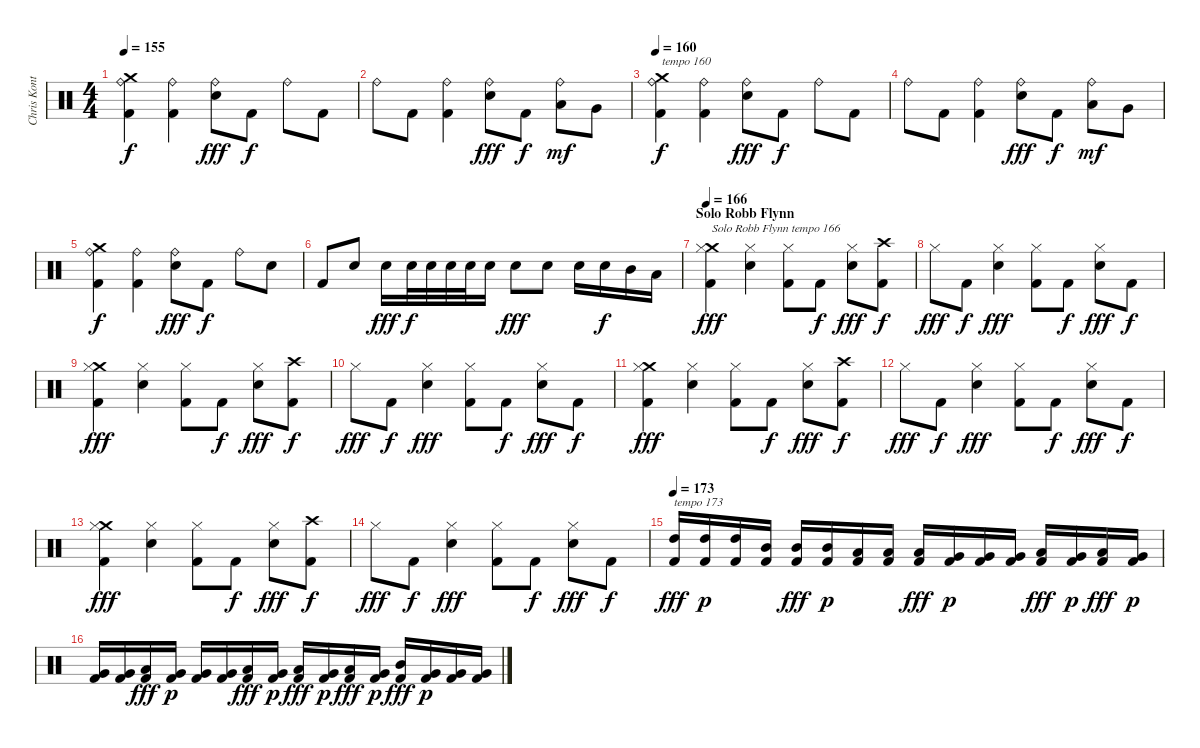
\track ("Chris Kontos" "Chris Kont") {instrument percussion}
\staff {score}
\articulation defaults
\ts (4 4)
\tempo 155
\clef neutral
\ks c
("Crash medium (hit)" "Ride (bell)" "Kick (hit) 2").4{dy f} ("Ride (bell)" "Kick (hit) 2").4 ("Electric Snare (hit)" "Ride (bell)").8{dy fff} "Kick (hit) 2".8{dy f} "Ride (bell)".8 "Kick (hit) 2".8 |
"Ride (bell)".8 "Kick (hit) 2".8 ("Ride (bell)" "Kick (hit) 2").4 ("Electric Snare (hit)" "Ride (bell)").8{dy fff} "Kick (hit) 2".8{dy f} ("Low Tom (hit)" "Ride (bell)").8{dy mf} "Very Low Tom (hit)".8 |
\tempo 160
("Crash medium (hit)" "Ride (bell)" "Kick (hit) 2").4{txt "tempo 160" dy f} ("Ride (bell)" "Kick (hit) 2").4 ("Electric Snare (hit)" "Ride (bell)").8{dy fff} "Kick (hit) 2".8{dy f} "Ride (bell)".8 "Kick (hit) 2".8 |
"Ride (bell)".8 "Kick (hit) 2".8 ("Ride (bell)" "Kick (hit) 2").4 ("Electric Snare (hit)" "Ride (bell)").8{dy fff} "Kick (hit) 2".8{dy f} ("Low Tom (hit)" "Ride (bell)").8{dy mf} "Very Low Tom (hit)".8 |
("Crash medium (hit)" "Ride (bell)" "Kick (hit) 2").4{dy f} ("Ride (bell)" "Kick (hit) 2").4 ("Electric Snare (hit)" "Ride (bell)").8{dy fff} "Kick (hit) 2".8{dy f} "Ride (bell)".8 "Electric Snare (hit)".8 |
"Kick (hit) 2".8 "Electric Snare (hit)".8 "Electric Snare (hit)".16{dy fff} "Electric Snare (hit)".32{dy f} "Electric Snare (hit)".32 "Electric Snare (hit)".32 "Electric Snare (hit)".32 "Electric Snare (hit)".16 "Electric Snare (hit)".8{dy fff} "Electric Snare (hit)".8 "Electric Snare (hit)".16 "Electric Snare (hit)".16{dy f} "Mid Tom (hit)".16 "Low Tom (hit)".16 |
\section ("" "Solo Robb Flynn")
\tempo 166
("Crash medium (hit)" "Hi-Hat (closed)" "Kick (hit) 2").4{txt "Solo Robb Flynn tempo 166" dy fff} ("Electric Snare (hit)" "Hi-Hat (closed)").4 ("Hi-Hat (closed)" "Kick (hit) 2").8 "Kick (hit) 2".8{dy f} ("Electric Snare (hit)" "Hi-Hat (closed)").8{dy fff} ("Crash high (hit)" "Kick (hit) 2").8{dy f} |
"Hi-Hat (closed)".8{dy fff} "Kick (hit) 2".8{dy f} ("Electric Snare (hit)" "Hi-Hat (closed)").4{dy fff} ("Hi-Hat (closed)" "Kick (hit) 2").8 "Kick (hit) 2".8{dy f} ("Electric Snare (hit)" "Hi-Hat (closed)").8{dy fff} "Kick (hit) 2".8{dy f} |
("Crash medium (hit)" "Hi-Hat (closed)" "Kick (hit) 2").4{dy fff} ("Electric Snare (hit)" "Hi-Hat (closed)").4 ("Hi-Hat (closed)" "Kick (hit) 2").8 "Kick (hit) 2".8{dy f} ("Electric Snare (hit)" "Hi-Hat (closed)").8{dy fff} ("Crash high (hit)" "Kick (hit) 2").8{dy f} |
"Hi-Hat (closed)".8{dy fff} "Kick (hit) 2".8{dy f} ("Electric Snare (hit)" "Hi-Hat (closed)").4{dy fff} ("Hi-Hat (closed)" "Kick (hit) 2").8 "Kick (hit) 2".8{dy f} ("Electric Snare (hit)" "Hi-Hat (closed)").8{dy fff} "Kick (hit) 2".8{dy f} |
("Crash medium (hit)" "Hi-Hat (closed)" "Kick (hit) 2").4{dy fff} ("Electric Snare (hit)" "Hi-Hat (closed)").4 ("Hi-Hat (closed)" "Kick (hit) 2").8 "Kick (hit) 2".8{dy f} ("Electric Snare (hit)" "Hi-Hat (closed)").8{dy fff} ("Crash high (hit)" "Kick (hit) 2").8{dy f} |
"Hi-Hat (closed)".8{dy fff} "Kick (hit) 2".8{dy f} ("Electric Snare (hit)" "Hi-Hat (closed)").4{dy fff} ("Hi-Hat (closed)" "Kick (hit) 2").8 "Kick (hit) 2".8{dy f} ("Electric Snare (hit)" "Hi-Hat (closed)").8{dy fff} "Kick (hit) 2".8{dy f} |
("Crash medium (hit)" "Hi-Hat (closed)" "Kick (hit) 2").4{dy fff} ("Electric Snare (hit)" "Hi-Hat (closed)").4 ("Hi-Hat (closed)" "Kick (hit) 2").8 "Kick (hit) 2".8{dy f} ("Electric Snare (hit)" "Hi-Hat (closed)").8{dy fff} ("Crash high (hit)" "Kick (hit) 2").8{dy f} |
"Hi-Hat (closed)".8{dy fff} "Kick (hit) 2".8{dy f} ("Electric Snare (hit)" "Hi-Hat (closed)").4{dy fff} ("Hi-Hat (closed)" "Kick (hit) 2").8 "Kick (hit) 2".8{dy f} ("Electric Snare (hit)" "Hi-Hat (closed)").8{dy fff} "Kick (hit) 2".8{dy f} |
\tempo 173
("High Tom (hit)" "Kick (hit) 2").16{txt "tempo 173" dy fff} ("High Tom (hit)" "Kick (hit) 2").16{dy p} ("High Tom (hit)" "Kick (hit) 2").16 ("Mid Tom (hit)" "Kick (hit) 2").16 ("Mid Tom (hit)" "Kick (hit) 2").16{dy fff} ("Mid Tom (hit)" "Kick (hit) 2").16{dy p} ("Low Tom (hit)" "Kick (hit) 2").16 ("Low Tom (hit)" "Kick (hit) 2").16 ("Low Tom (hit)" "Kick (hit) 2").16{dy fff} ("Very Low Tom (hit)" "Kick (hit) 2").16{dy p} ("Very Low Tom (hit)" "Kick (hit) 2").16 ("Very Low Tom (hit)" "Kick (hit) 2").16 ("Low Tom (hit)" "Kick (hit) 2").16{dy fff} ("Very Low Tom (hit)" "Kick (hit) 2").16{dy p} ("Low Tom (hit)" "Kick (hit) 2").16{dy fff} ("Very Low Tom (hit)" "Kick (hit) 2").16{dy p} |
("Very Low Tom (hit)" "Kick (hit) 2").16 ("Very Low Tom (hit)" "Kick (hit) 2").16 ("Low Tom (hit)" "Kick (hit) 2").16{dy fff} ("Very Low Tom (hit)" "Kick (hit) 2").16{dy p} ("Very Low Tom (hit)" "Kick (hit) 2").16 ("Very Low Tom (hit)" "Kick (hit) 2").16 ("Low Tom (hit)" "Kick (hit) 2").16{dy fff} ("Very Low Tom (hit)" "Kick (hit) 2").16{dy p} ("Low Tom (hit)" "Kick (hit) 2").16{dy fff} ("Very Low Tom (hit)" "Kick (hit) 2").16{dy p} ("Low Tom (hit)" "Kick (hit) 2").16{dy fff} ("Very Low Tom (hit)" "Kick (hit) 2").16{dy p} ("Mid Tom (hit)" "Kick (hit) 2").16{dy fff} ("Very Low Tom (hit)" "Kick (hit) 2").16{dy p} ("Very Low Tom (hit)" "Kick (hit) 2").16 ("Very Low Tom (hit)" "Kick (hit) 2").16
